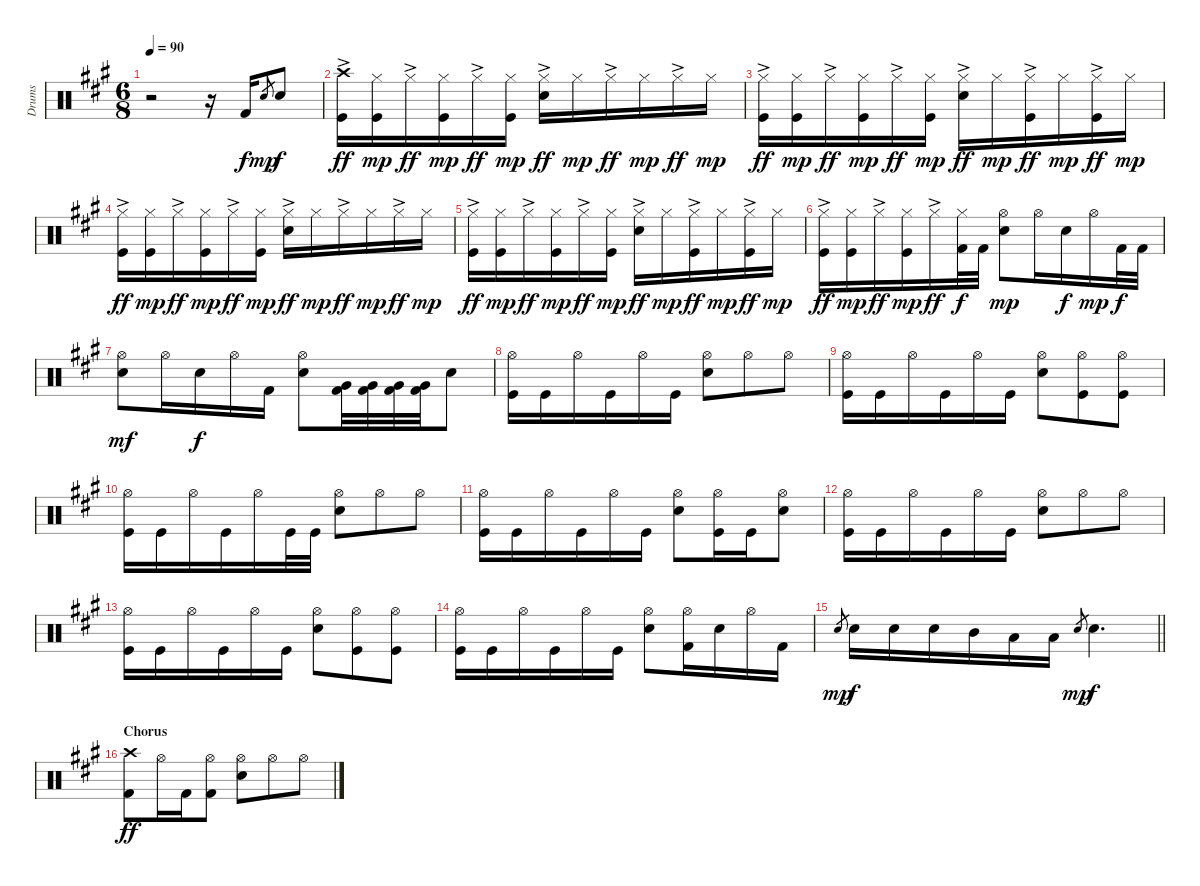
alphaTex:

\track ("Drums" "Drums") {instrument percussion}
\staff {score}
\articulation defaults
\ts (6 8)
\tempo 90
\clef neutral
\ks a
r.2{dy f} r.16 "Kick (hit) 2".16 "Snare (hit) 2".8{gr dy mp} "Snare (hit) 2".8{dy f} |
("Crash high (hit)"{ac} "Kick (hit)").16{dy ff} ("Hi-Hat (closed)" "Kick (hit)").16{dy mp} "Hi-Hat (closed)"{ac}.16{dy ff} ("Hi-Hat (closed)" "Kick (hit)").16{dy mp} "Hi-Hat (closed)"{ac}.16{dy ff} ("Hi-Hat (closed)" "Kick (hit)").16{dy mp} ("Hi-Hat (closed)"{ac} "Snare (hit) 2").16{dy ff} "Hi-Hat (closed)".16{dy mp} "Hi-Hat (closed)"{ac}.16{dy ff} "Hi-Hat (closed)".16{dy mp} "Hi-Hat (closed)"{ac}.16{dy ff} "Hi-Hat (closed)".16{dy mp} |
("Hi-Hat (closed)"{ac} "Kick (hit)").16{dy ff} ("Hi-Hat (closed)" "Kick (hit)").16{dy mp} "Hi-Hat (closed)"{ac}.16{dy ff} ("Hi-Hat (closed)" "Kick (hit)").16{dy mp} "Hi-Hat (closed)"{ac}.16{dy ff} ("Hi-Hat (closed)" "Kick (hit)").16{dy mp} ("Hi-Hat (closed)"{ac} "Snare (hit) 2").16{dy ff} "Hi-Hat (closed)".16{dy mp} ("Hi-Hat (closed)"{ac} "Kick (hit)").16{dy ff} "Hi-Hat (closed)".16{dy mp} ("Hi-Hat (closed)"{ac} "Kick (hit)").16{dy ff} "Hi-Hat (closed)".16{dy mp} |
("Hi-Hat (closed)"{ac} "Kick (hit)").16{dy ff} ("Hi-Hat (closed)" "Kick (hit)").16{dy mp} "Hi-Hat (closed)"{ac}.16{dy ff} ("Hi-Hat (closed)" "Kick (hit)").16{dy mp} "Hi-Hat (closed)"{ac}.16{dy ff} ("Hi-Hat (closed)" "Kick (hit)").16{dy mp} ("Hi-Hat (closed)"{ac} "Snare (hit) 2").16{dy ff} "Hi-Hat (closed)".16{dy mp} "Hi-Hat (closed)"{ac}.16{dy ff} "Hi-Hat (closed)".16{dy mp} "Hi-Hat (closed)"{ac}.16{dy ff} "Hi-Hat (closed)".16{dy mp} |
("Hi-Hat (closed)"{ac} "Kick (hit)").16{dy ff} ("Hi-Hat (closed)" "Kick (hit)").16{dy mp} "Hi-Hat (closed)"{ac}.16{dy ff} ("Hi-Hat (closed)" "Kick (hit)").16{dy mp} "Hi-Hat (closed)"{ac}.16{dy ff} ("Hi-Hat (closed)" "Kick (hit)").16{dy mp} ("Hi-Hat (closed)"{ac} "Snare (hit) 2").16{dy ff} "Hi-Hat (closed)".16{dy mp} ("Hi-Hat (closed)"{ac} "Kick (hit)").16{dy ff} "Hi-Hat (closed)".16{dy mp} ("Hi-Hat (closed)"{ac} "Kick (hit)").16{dy ff} "Hi-Hat (closed)".16{dy mp} |
("Hi-Hat (closed)"{ac} "Kick (hit)").16{dy ff} ("Hi-Hat (closed)" "Kick (hit)").16{dy mp} "Hi-Hat (closed)"{ac}.16{dy ff} ("Hi-Hat (closed)" "Kick (hit)").16{dy mp} "Hi-Hat (closed)"{ac}.16{dy ff} ("Hi-Hat (closed)" "Kick (hit) 2").32{dy f} "Kick (hit) 2".32 ("Hi-Hat (open)" "Snare (hit) 2").8{dy mp} "Hi-Hat (open)".16 "Snare (hit) 2".16{dy f} "Hi-Hat (open)".16{dy mp} "Kick (hit) 2".32{dy f} "Kick (hit) 2".32 |
("Hi-Hat (open)" "Snare (hit) 2").8{dy mf} "Hi-Hat (open)".16 "Snare (hit) 2".16{dy f} "Hi-Hat (open)".16 "Kick (hit) 2".16 ("Hi-Hat (open)" "Snare (hit) 2").8 ("Very Low Tom (hit)" "Kick (hit) 2").32 ("Very Low Tom (hit)" "Kick (hit) 2").32 ("Very Low Tom (hit)" "Kick (hit) 2").32 ("Very Low Tom (hit)" "Kick (hit) 2").32 "Snare (hit) 2".8 |
("Hi-Hat (open)" "Kick (hit)").16 "Kick (hit)".16 "Hi-Hat (open)".16 "Kick (hit)".16 "Hi-Hat (open)".16 "Kick (hit)".16 ("Hi-Hat (open)" "Snare (hit) 2").8 "Hi-Hat (open)".8 "Hi-Hat (open)".8 |
("Hi-Hat (open)" "Kick (hit)").16 "Kick (hit)".16 "Hi-Hat (open)".16 "Kick (hit)".16 "Hi-Hat (open)".16 "Kick (hit)".16 ("Hi-Hat (open)" "Snare (hit) 2").8 ("Hi-Hat (open)" "Kick (hit)").8 ("Hi-Hat (open)" "Kick (hit)").8 |
("Hi-Hat (open)" "Kick (hit)").16 "Kick (hit)".16 "Hi-Hat (open)".16 "Kick (hit)".16 "Hi-Hat (open)".16 "Kick (hit)".32 "Kick (hit)".32 ("Hi-Hat (open)" "Snare (hit) 2").8 "Hi-Hat (open)".8 "Hi-Hat (open)".8 |
("Hi-Hat (open)" "Kick (hit)").16 "Kick (hit)".16 "Hi-Hat (open)".16 "Kick (hit)".16 "Hi-Hat (open)".16 "Kick (hit)".16 ("Hi-Hat (open)" "Snare (hit) 2").8 ("Hi-Hat (open)" "Kick (hit)").16 "Kick (hit)".16 ("Hi-Hat (open)" "Snare (hit) 2").8 |
("Hi-Hat (open)" "Kick (hit)").16 "Kick (hit)".16 "Hi-Hat (open)".16 "Kick (hit)".16 "Hi-Hat (open)".16 "Kick (hit)".16 ("Hi-Hat (open)" "Snare (hit) 2").8 "Hi-Hat (open)".8 "Hi-Hat (open)".8 |
("Hi-Hat (open)" "Kick (hit)").16 "Kick (hit)".16 "Hi-Hat (open)".16 "Kick (hit)".16 "Hi-Hat (open)".16 "Kick (hit)".16 ("Hi-Hat (open)" "Snare (hit) 2").8 ("Hi-Hat (open)" "Kick (hit)").8 ("Hi-Hat (open)" "Kick (hit)").8 |
("Hi-Hat (open)" "Kick (hit)").16 "Kick (hit)".16 "Hi-Hat (open)".16 "Kick (hit)".16 "Hi-Hat (open)".16 "Kick (hit)".16 ("Hi-Hat (open)" "Snare (hit) 2").8 ("Hi-Hat (open)" "Kick (hit) 2").16 "Snare (hit) 2".16 "Hi-Hat (open)".16 "Kick (hit) 2".16 |
\barLineRight lightlight "Snare (hit) 2".8{gr dy mp} "Snare (hit) 2".16{dy f} "Snare (hit) 2".16 "Snare (hit) 2".16 "Mid Tom (hit)".16 "Low Tom (hit)".16 "Low Tom (hit)".16 "Snare (hit) 2".8{gr dy mp} "Snare (hit) 2".4{d dy f}
|
\section ("" "Chorus")
("Crash high (hit)" "Kick (hit) 2").8{dy ff} "Hi-Hat (open)".16 "Kick (hit) 2".16 ("Hi-Hat (open)" "Kick (hit) 2").8 ("Hi-Hat (open)" "Snare (hit) 2").8 "Hi-Hat (open)".8 "Hi-Hat (open)".8
